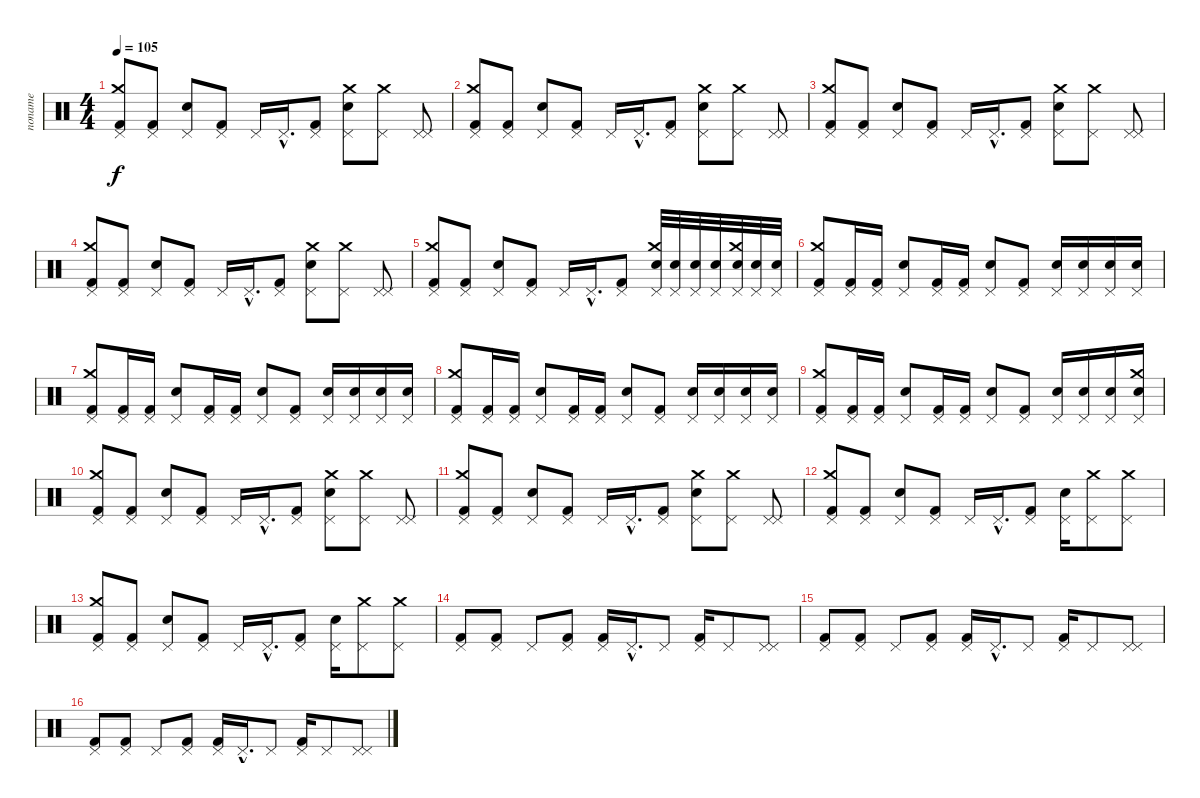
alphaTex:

\track ("noname" "noname") {instrument percussion}
\staff {score}
\articulation defaults
\ts (4 4)
\tempo 105
\clef neutral
\ks c
("Pedal Hi-Hat (hit)" "Crash medium (hit)" "Kick (hit) 2").8{dy f} ("Pedal Hi-Hat (hit)" "Kick (hit) 2").8 ("Pedal Hi-Hat (hit)" "Snare (hit) 2").8 ("Pedal Hi-Hat (hit)" "Kick (hit) 2").8 "Pedal Hi-Hat (hit)".16 "Pedal Hi-Hat (hit)"{hac}.16{d} ("Pedal Hi-Hat (hit)" "Kick (hit) 2").8 ("Pedal Hi-Hat (hit)" "Crash medium (hit)" "Snare (hit) 2").8 ("Pedal Hi-Hat (hit)" "Crash medium (hit)").8 ("Pedal Hi-Hat (hit)" "Pedal Hi-Hat (hit)").8 |
("Pedal Hi-Hat (hit)" "Crash medium (hit)" "Kick (hit) 2").8 ("Pedal Hi-Hat (hit)" "Kick (hit) 2").8 ("Pedal Hi-Hat (hit)" "Snare (hit) 2").8 ("Pedal Hi-Hat (hit)" "Kick (hit) 2").8 "Pedal Hi-Hat (hit)".16 "Pedal Hi-Hat (hit)"{hac}.16{d} ("Pedal Hi-Hat (hit)" "Kick (hit) 2").8 ("Pedal Hi-Hat (hit)" "Crash medium (hit)" "Snare (hit) 2").8 ("Pedal Hi-Hat (hit)" "Crash medium (hit)").8 ("Pedal Hi-Hat (hit)" "Pedal Hi-Hat (hit)").8 |
("Pedal Hi-Hat (hit)" "Crash medium (hit)" "Kick (hit) 2").8 ("Pedal Hi-Hat (hit)" "Kick (hit) 2").8 ("Pedal Hi-Hat (hit)" "Snare (hit) 2").8 ("Pedal Hi-Hat (hit)" "Kick (hit) 2").8 "Pedal Hi-Hat (hit)".16 "Pedal Hi-Hat (hit)"{hac}.16{d} ("Pedal Hi-Hat (hit)" "Kick (hit) 2").8 ("Pedal Hi-Hat (hit)" "Crash medium (hit)" "Snare (hit) 2").8 ("Pedal Hi-Hat (hit)" "Crash medium (hit)").8 ("Pedal Hi-Hat (hit)" "Pedal Hi-Hat (hit)").8 |
("Pedal Hi-Hat (hit)" "Crash medium (hit)" "Kick (hit) 2").8 ("Pedal Hi-Hat (hit)" "Kick (hit) 2").8 ("Pedal Hi-Hat (hit)" "Snare (hit) 2").8 ("Pedal Hi-Hat (hit)" "Kick (hit) 2").8 "Pedal Hi-Hat (hit)".16 "Pedal Hi-Hat (hit)"{hac}.16{d} ("Pedal Hi-Hat (hit)" "Kick (hit) 2").8 ("Pedal Hi-Hat (hit)" "Crash medium (hit)" "Snare (hit) 2").8 ("Pedal Hi-Hat (hit)" "Crash medium (hit)").8 ("Pedal Hi-Hat (hit)" "Pedal Hi-Hat (hit)").8 |
("Pedal Hi-Hat (hit)" "Crash medium (hit)" "Kick (hit) 2").8 ("Pedal Hi-Hat (hit)" "Kick (hit) 2").8 ("Pedal Hi-Hat (hit)" "Snare (hit) 2").8 ("Pedal Hi-Hat (hit)" "Kick (hit) 2").8 "Pedal Hi-Hat (hit)".16 "Pedal Hi-Hat (hit)"{hac}.16{d} ("Pedal Hi-Hat (hit)" "Kick (hit) 2").8 ("Pedal Hi-Hat (hit)" "Crash medium (hit)" "Snare (hit) 2").32 ("Pedal Hi-Hat (hit)" "Snare (hit) 2").32 ("Pedal Hi-Hat (hit)" "Snare (hit) 2").32 ("Pedal Hi-Hat (hit)" "Snare (hit) 2").32 ("Pedal Hi-Hat (hit)" "Crash medium (hit)" "Snare (hit) 2").32 ("Pedal Hi-Hat (hit)" "Snare (hit) 2").32 ("Pedal Hi-Hat (hit)" "Snare (hit) 2").32 |
("Pedal Hi-Hat (hit)" "Crash medium (hit)" "Kick (hit) 2").8 ("Pedal Hi-Hat (hit)" "Kick (hit) 2").16 ("Pedal Hi-Hat (hit)" "Kick (hit) 2").16 ("Pedal Hi-Hat (hit)" "Snare (hit) 2").8 ("Pedal Hi-Hat (hit)" "Kick (hit) 2").16 ("Pedal Hi-Hat (hit)" "Kick (hit) 2").16 ("Pedal Hi-Hat (hit)" "Snare (hit) 2").8 ("Pedal Hi-Hat (hit)" "Kick (hit) 2").8 ("Pedal Hi-Hat (hit)" "Snare (hit) 2").16 ("Pedal Hi-Hat (hit)" "Snare (hit) 2").16 ("Pedal Hi-Hat (hit)" "Snare (hit) 2").16 ("Pedal Hi-Hat (hit)" "Snare (hit) 2").16 |
("Pedal Hi-Hat (hit)" "Crash medium (hit)" "Kick (hit) 2").8 ("Pedal Hi-Hat (hit)" "Kick (hit) 2").16 ("Pedal Hi-Hat (hit)" "Kick (hit) 2").16 ("Pedal Hi-Hat (hit)" "Snare (hit) 2").8 ("Pedal Hi-Hat (hit)" "Kick (hit) 2").16 ("Pedal Hi-Hat (hit)" "Kick (hit) 2").16 ("Pedal Hi-Hat (hit)" "Snare (hit) 2").8 ("Pedal Hi-Hat (hit)" "Kick (hit) 2").8 ("Pedal Hi-Hat (hit)" "Snare (hit) 2").16 ("Pedal Hi-Hat (hit)" "Snare (hit) 2").16 ("Pedal Hi-Hat (hit)" "Snare (hit) 2").16 ("Pedal Hi-Hat (hit)" "Snare (hit) 2").16 |
("Pedal Hi-Hat (hit)" "Crash medium (hit)" "Kick (hit) 2").8 ("Pedal Hi-Hat (hit)" "Kick (hit) 2").16 ("Pedal Hi-Hat (hit)" "Kick (hit) 2").16 ("Pedal Hi-Hat (hit)" "Snare (hit) 2").8 ("Pedal Hi-Hat (hit)" "Kick (hit) 2").16 ("Pedal Hi-Hat (hit)" "Kick (hit) 2").16 ("Pedal Hi-Hat (hit)" "Snare (hit) 2").8 ("Pedal Hi-Hat (hit)" "Kick (hit) 2").8 ("Pedal Hi-Hat (hit)" "Snare (hit) 2").16 ("Pedal Hi-Hat (hit)" "Snare (hit) 2").16 ("Pedal Hi-Hat (hit)" "Snare (hit) 2").16 ("Pedal Hi-Hat (hit)" "Snare (hit) 2").16 |
("Pedal Hi-Hat (hit)" "Crash medium (hit)" "Kick (hit) 2").8 ("Pedal Hi-Hat (hit)" "Kick (hit) 2").16 ("Pedal Hi-Hat (hit)" "Kick (hit) 2").16 ("Pedal Hi-Hat (hit)" "Snare (hit) 2").8 ("Pedal Hi-Hat (hit)" "Kick (hit) 2").16 ("Pedal Hi-Hat (hit)" "Kick (hit) 2").16 ("Pedal Hi-Hat (hit)" "Snare (hit) 2").8 ("Pedal Hi-Hat (hit)" "Kick (hit) 2").8 ("Pedal Hi-Hat (hit)" "Snare (hit) 2").16 ("Pedal Hi-Hat (hit)" "Snare (hit) 2").16 ("Pedal Hi-Hat (hit)" "Snare (hit) 2").16 ("Pedal Hi-Hat (hit)" "Crash medium (hit)" "Snare (hit) 2").16 |
("Pedal Hi-Hat (hit)" "Crash medium (hit)" "Kick (hit) 2").8 ("Pedal Hi-Hat (hit)" "Kick (hit) 2").8 ("Pedal Hi-Hat (hit)" "Snare (hit) 2").8 ("Pedal Hi-Hat (hit)" "Kick (hit) 2").8 "Pedal Hi-Hat (hit)".16 "Pedal Hi-Hat (hit)"{hac}.16{d} ("Pedal Hi-Hat (hit)" "Kick (hit) 2").8 ("Pedal Hi-Hat (hit)" "Crash medium (hit)" "Snare (hit) 2").8 ("Pedal Hi-Hat (hit)" "Crash medium (hit)").8 ("Pedal Hi-Hat (hit)" "Pedal Hi-Hat (hit)").8 |
("Pedal Hi-Hat (hit)" "Crash medium (hit)" "Kick (hit) 2").8 ("Pedal Hi-Hat (hit)" "Kick (hit) 2").8 ("Pedal Hi-Hat (hit)" "Snare (hit) 2").8 ("Pedal Hi-Hat (hit)" "Kick (hit) 2").8 "Pedal Hi-Hat (hit)".16 "Pedal Hi-Hat (hit)"{hac}.16{d} ("Pedal Hi-Hat (hit)" "Kick (hit) 2").8 ("Pedal Hi-Hat (hit)" "Crash medium (hit)" "Snare (hit) 2").8 ("Pedal Hi-Hat (hit)" "Crash medium (hit)").8 ("Pedal Hi-Hat (hit)" "Pedal Hi-Hat (hit)").8 |
("Pedal Hi-Hat (hit)" "Crash medium (hit)" "Kick (hit) 2").8 ("Pedal Hi-Hat (hit)" "Kick (hit) 2").8 ("Pedal Hi-Hat (hit)" "Snare (hit) 2").8 ("Pedal Hi-Hat (hit)" "Kick (hit) 2").8 "Pedal Hi-Hat (hit)".16 "Pedal Hi-Hat (hit)"{hac}.16{d} ("Pedal Hi-Hat (hit)" "Kick (hit) 2").8 ("Pedal Hi-Hat (hit)" "Snare (hit) 2").16 ("Pedal Hi-Hat (hit)" "Crash medium (hit)").8 ("Pedal Hi-Hat (hit)" "Crash medium (hit)").8 |
("Pedal Hi-Hat (hit)" "Crash medium (hit)" "Kick (hit) 2").8 ("Pedal Hi-Hat (hit)" "Kick (hit) 2").8 ("Pedal Hi-Hat (hit)" "Snare (hit) 2").8 ("Pedal Hi-Hat (hit)" "Kick (hit) 2").8 "Pedal Hi-Hat (hit)".16 "Pedal Hi-Hat (hit)"{hac}.16{d} ("Pedal Hi-Hat (hit)" "Kick (hit) 2").8 ("Pedal Hi-Hat (hit)" "Snare (hit) 2").16 ("Pedal Hi-Hat (hit)" "Crash medium (hit)").8 ("Pedal Hi-Hat (hit)" "Crash medium (hit)").8 |
("Pedal Hi-Hat (hit)" "Kick (hit) 2").8 ("Pedal Hi-Hat (hit)" "Kick (hit) 2").8 "Pedal Hi-Hat (hit)".8 ("Pedal Hi-Hat (hit)" "Kick (hit) 2").8 ("Pedal Hi-Hat (hit)" "Kick (hit) 2").16 "Pedal Hi-Hat (hit)"{hac}.16{d} "Pedal Hi-Hat (hit)".8 ("Pedal Hi-Hat (hit)" "Kick (hit) 2").16 "Pedal Hi-Hat (hit)".8 ("Pedal Hi-Hat (hit)" "Pedal Hi-Hat (hit)").8 |
("Pedal Hi-Hat (hit)" "Kick (hit) 2").8 ("Pedal Hi-Hat (hit)" "Kick (hit) 2").8 "Pedal Hi-Hat (hit)".8 ("Pedal Hi-Hat (hit)" "Kick (hit) 2").8 ("Pedal Hi-Hat (hit)" "Kick (hit) 2").16 "Pedal Hi-Hat (hit)"{hac}.16{d} "Pedal Hi-Hat (hit)".8 ("Pedal Hi-Hat (hit)" "Kick (hit) 2").16 "Pedal Hi-Hat (hit)".8 ("Pedal Hi-Hat (hit)" "Pedal Hi-Hat (hit)").8 |
("Pedal Hi-Hat (hit)" "Kick (hit) 2").8 ("Pedal Hi-Hat (hit)" "Kick (hit) 2").8 "Pedal Hi-Hat (hit)".8 ("Pedal Hi-Hat (hit)" "Kick (hit) 2").8 ("Pedal Hi-Hat (hit)" "Kick (hit) 2").16 "Pedal Hi-Hat (hit)"{hac}.16{d} "Pedal Hi-Hat (hit)".8 ("Pedal Hi-Hat (hit)" "Kick (hit) 2").16 "Pedal Hi-Hat (hit)".8 ("Pedal Hi-Hat (hit)" "Pedal Hi-Hat (hit)").8
